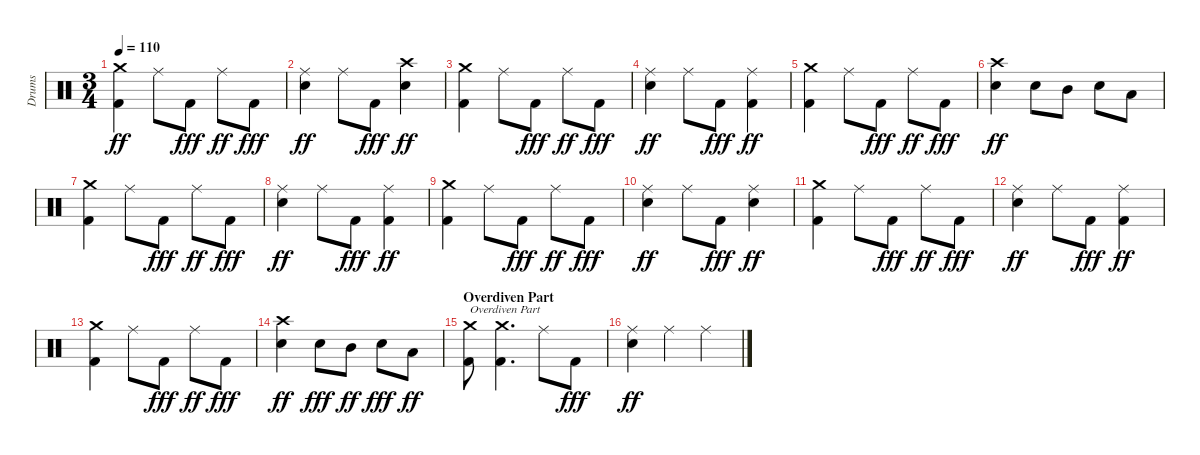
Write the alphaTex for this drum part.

\track ("Drums" "Drums") {instrument percussion}
\staff {score}
\articulation defaults
\ts (3 4)
\tempo 110
\clef neutral
\ks c
("Crash medium (hit)" "Kick (hit) 2").4{dy ff} "Ride (middle)".8 "Kick (hit) 2".8{dy fff} "Ride (middle)".8{dy ff} "Kick (hit) 2".8{dy fff} |
("Ride (middle)" "Snare (hit) 2").4{dy ff} "Ride (middle)".8 "Kick (hit) 2".8{dy fff} ("Crash high (hit)" "Snare (hit) 2").4{dy ff} |
("Crash medium (hit)" "Kick (hit) 2").4 "Ride (middle)".8 "Kick (hit) 2".8{dy fff} "Ride (middle)".8{dy ff} "Kick (hit) 2".8{dy fff} |
("Ride (middle)" "Snare (hit) 2").4{dy ff} "Ride (middle)".8 "Kick (hit) 2".8{dy fff} ("Ride (middle)" "Kick (hit) 2").4{dy ff} |
("Crash medium (hit)" "Kick (hit) 2").4 "Ride (middle)".8 "Kick (hit) 2".8{dy fff} "Ride (middle)".8{dy ff} "Kick (hit) 2".8{dy fff} |
("Crash high (hit)" "Snare (hit) 2").4{dy ff} "Snare (hit) 2".8 "Mid Tom (hit)".8 "Snare (hit) 2".8 "Low Tom (hit)".8 |
("Crash medium (hit)" "Kick (hit) 2").4 "Ride (middle)".8 "Kick (hit) 2".8{dy fff} "Ride (middle)".8{dy ff} "Kick (hit) 2".8{dy fff} |
("Ride (middle)" "Snare (hit) 2").4{dy ff} "Ride (middle)".8 "Kick (hit) 2".8{dy fff} ("Ride (middle)" "Kick (hit) 2").4{dy ff} |
("Crash medium (hit)" "Kick (hit) 2").4 "Ride (middle)".8 "Kick (hit) 2".8{dy fff} "Ride (middle)".8{dy ff} "Kick (hit) 2".8{dy fff} |
("Ride (middle)" "Snare (hit) 2").4{dy ff} "Ride (middle)".8 "Kick (hit) 2".8{dy fff} ("Ride (middle)" "Snare (hit) 2").4{dy ff} |
("Crash medium (hit)" "Kick (hit) 2").4 "Ride (middle)".8 "Kick (hit) 2".8{dy fff} "Ride (middle)".8{dy ff} "Kick (hit) 2".8{dy fff} |
("Ride (middle)" "Snare (hit) 2").4{dy ff} "Ride (middle)".8 "Kick (hit) 2".8{dy fff} ("Ride (middle)" "Kick (hit) 2").4{dy ff} |
("Crash medium (hit)" "Kick (hit) 2").4 "Ride (middle)".8 "Kick (hit) 2".8{dy fff} "Ride (middle)".8{dy ff} "Kick (hit) 2".8{dy fff} |
("Crash high (hit)" "Snare (hit) 2").4{dy ff} "Snare (hit) 2".8{dy fff} "Mid Tom (hit)".8{dy ff} "Snare (hit) 2".8{dy fff} "Low Tom (hit)".8{dy ff} |
\section ("" "Overdiven Part")
("Crash medium (hit)" "Kick (hit) 2").8{txt "Overdiven Part"} ("Crash medium (hit)" "Kick (hit) 2").4{d} "Ride (middle)".8 "Kick (hit) 2".8{dy fff} |
("Ride (middle)" "Snare (hit) 2").4{dy ff} "Ride (middle)".4 "Ride (middle)".4
